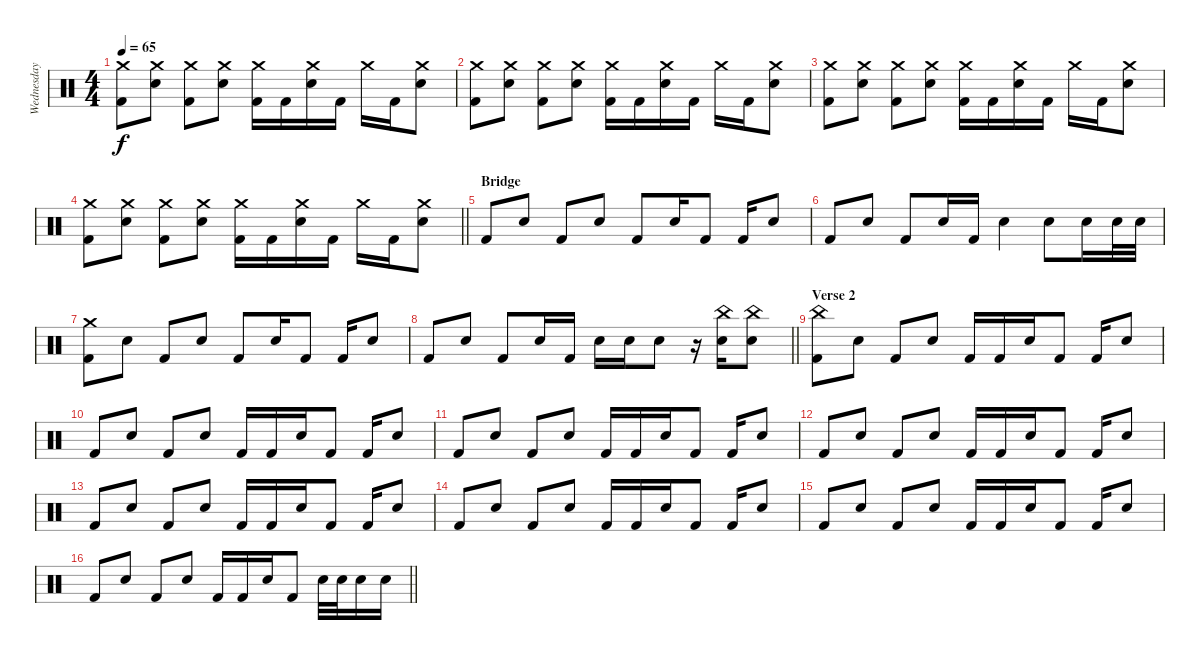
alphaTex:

\track ("Wednesday 13 - Drums" "Wednesday ") {instrument percussion}
\staff {score}
\articulation defaults
\ts (4 4)
\tempo 65
\clef neutral
\ks c
("Crash medium (hit)" "Kick (hit) 2").8{dy f} ("Crash medium (hit)" "Electric Snare (hit)").8 ("Crash medium (hit)" "Kick (hit) 2").8 ("Crash medium (hit)" "Electric Snare (hit)").8 ("Crash medium (hit)" "Kick (hit) 2").16 "Kick (hit) 2".16 ("Crash medium (hit)" "Electric Snare (hit)").16 "Kick (hit) 2".16 "Crash medium (hit)".16 "Kick (hit) 2".16 ("Crash medium (hit)" "Electric Snare (hit)").8 |
("Crash medium (hit)" "Kick (hit) 2").8 ("Crash medium (hit)" "Electric Snare (hit)").8 ("Crash medium (hit)" "Kick (hit) 2").8 ("Crash medium (hit)" "Electric Snare (hit)").8 ("Crash medium (hit)" "Kick (hit) 2").16 "Kick (hit) 2".16 ("Crash medium (hit)" "Electric Snare (hit)").16 "Kick (hit) 2".16 "Crash medium (hit)".16 "Kick (hit) 2".16 ("Crash medium (hit)" "Electric Snare (hit)").8 |
("Crash medium (hit)" "Kick (hit) 2").8 ("Crash medium (hit)" "Electric Snare (hit)").8 ("Crash medium (hit)" "Kick (hit) 2").8 ("Crash medium (hit)" "Electric Snare (hit)").8 ("Crash medium (hit)" "Kick (hit) 2").16 "Kick (hit) 2".16 ("Crash medium (hit)" "Electric Snare (hit)").16 "Kick (hit) 2".16 "Crash medium (hit)".16 "Kick (hit) 2".16 ("Crash medium (hit)" "Electric Snare (hit)").8 |
\barLineRight lightlight
("Crash medium (hit)" "Kick (hit) 2").8 ("Crash medium (hit)" "Electric Snare (hit)").8 ("Crash medium (hit)" "Kick (hit) 2").8 ("Crash medium (hit)" "Electric Snare (hit)").8 ("Crash medium (hit)" "Kick (hit) 2").16 "Kick (hit) 2".16 ("Crash medium (hit)" "Electric Snare (hit)").16 "Kick (hit) 2".16 "Crash medium (hit)".16 "Kick (hit) 2".16 ("Crash medium (hit)" "Electric Snare (hit)").8 |
\section ("" "Bridge")
"Kick (hit) 2".8 "Electric Snare (hit)".8 "Kick (hit) 2".8 "Electric Snare (hit)".8 "Kick (hit) 2".8 "Electric Snare (hit)".16 "Kick (hit) 2".8 "Kick (hit) 2".16 "Electric Snare (hit)".8 |
"Kick (hit) 2".8 "Electric Snare (hit)".8 "Kick (hit) 2".8 "Electric Snare (hit)".16 "Kick (hit) 2".16 "Electric Snare (hit)".4 "Electric Snare (hit)".8 "Electric Snare (hit)".16 "Electric Snare (hit)".32 "Electric Snare (hit)".32 |
("Crash medium (hit)" "Kick (hit) 2").8 "Electric Snare (hit)".8 "Kick (hit) 2".8 "Electric Snare (hit)".8 "Kick (hit) 2".8 "Electric Snare (hit)".16 "Kick (hit) 2".8 "Kick (hit) 2".16 "Electric Snare (hit)".8 |
\barLineRight lightlight "Kick (hit) 2".8 "Electric Snare (hit)".8 "Kick (hit) 2".8 "Electric Snare (hit)".16 "Kick (hit) 2".16 "Electric Snare (hit)".16 "Electric Snare (hit)".16 "Electric Snare (hit)".8
r.16 ("China (hit)" "Electric Snare (hit)").16 ("China (hit)" "Electric Snare (hit)").8 |
\section ("" "Verse 2")
("China (hit)" "Kick (hit) 2").8 "Electric Snare (hit)".8 "Kick (hit) 2".8 "Electric Snare (hit)".8 "Kick (hit) 2".16 "Kick (hit) 2".16 "Electric Snare (hit)".16 "Kick (hit) 2".8 "Kick (hit) 2".16 "Electric Snare (hit)".8 |
"Kick (hit) 2".8 "Electric Snare (hit)".8 "Kick (hit) 2".8 "Electric Snare (hit)".8 "Kick (hit) 2".16 "Kick (hit) 2".16 "Electric Snare (hit)".16 "Kick (hit) 2".8 "Kick (hit) 2".16 "Electric Snare (hit)".8 |
"Kick (hit) 2".8 "Electric Snare (hit)".8 "Kick (hit) 2".8 "Electric Snare (hit)".8 "Kick (hit) 2".16 "Kick (hit) 2".16 "Electric Snare (hit)".16 "Kick (hit) 2".8 "Kick (hit) 2".16 "Electric Snare (hit)".8 |
"Kick (hit) 2".8 "Electric Snare (hit)".8 "Kick (hit) 2".8 "Electric Snare (hit)".8 "Kick (hit) 2".16 "Kick (hit) 2".16 "Electric Snare (hit)".16 "Kick (hit) 2".8 "Kick (hit) 2".16 "Electric Snare (hit)".8 |
"Kick (hit) 2".8 "Electric Snare (hit)".8 "Kick (hit) 2".8 "Electric Snare (hit)".8 "Kick (hit) 2".16 "Kick (hit) 2".16 "Electric Snare (hit)".16 "Kick (hit) 2".8 "Kick (hit) 2".16 "Electric Snare (hit)".8 |
"Kick (hit) 2".8 "Electric Snare (hit)".8 "Kick (hit) 2".8 "Electric Snare (hit)".8 "Kick (hit) 2".16 "Kick (hit) 2".16 "Electric Snare (hit)".16 "Kick (hit) 2".8 "Kick (hit) 2".16 "Electric Snare (hit)".8 |
"Kick (hit) 2".8 "Electric Snare (hit)".8 "Kick (hit) 2".8 "Electric Snare (hit)".8 "Kick (hit) 2".16 "Kick (hit) 2".16 "Electric Snare (hit)".16 "Kick (hit) 2".8 "Kick (hit) 2".16 "Electric Snare (hit)".8 |
\barLineRight lightlight "Kick (hit) 2".8 "Electric Snare (hit)".8 "Kick (hit) 2".8 "Electric Snare (hit)".8 "Kick (hit) 2".16 "Kick (hit) 2".16 "Electric Snare (hit)".16 "Kick (hit) 2".8 "Electric Snare (hit)".32 "Electric Snare (hit)".32 "Electric Snare (hit)".16 "Electric Snare (hit)".16
